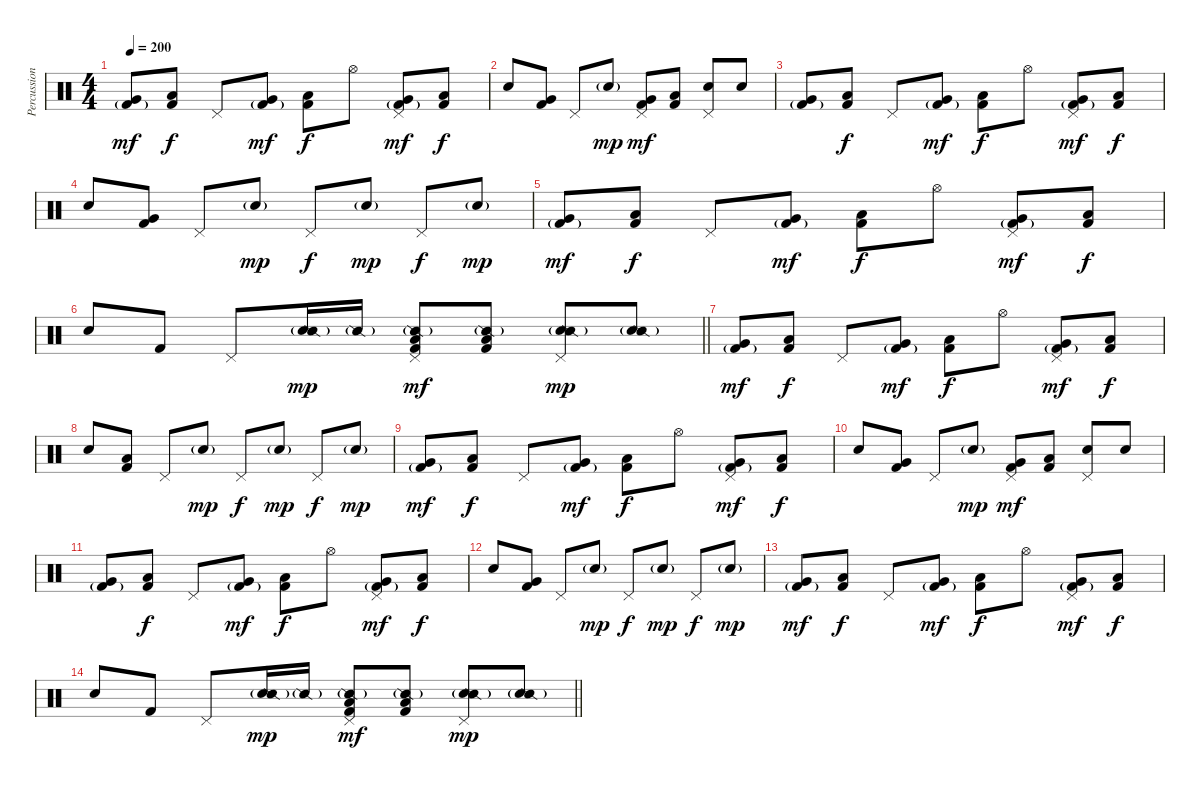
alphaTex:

\track ("Percussion" "Percussion") {instrument percussion}
\staff {score}
\articulation defaults
\ts (4 4)
\tempo 200
\clef neutral
\ks c
("Very Low Tom (hit)" "Kick (hit) 2"{g}).8{dy mf} ("Low Floor Tom (hit)" "Kick (hit) 2").8{dy f} "Pedal Hi-Hat (hit)".8 ("Very Low Tom (hit)" "Kick (hit) 2"{g}).8{dy mf} ("Low Floor Tom (hit)" "Kick (hit) 2").8{dy f} "Hi-Hat (open)".8 ("Pedal Hi-Hat (hit)" "Very Low Tom (hit)" "Kick (hit) 2"{g}).8{dy mf} ("Low Floor Tom (hit)" "Kick (hit) 2").8{dy f} |
"Electric Snare (hit)".8 ("Very Low Tom (hit)" "Kick (hit) 2").8 "Pedal Hi-Hat (hit)".8 "Electric Snare (hit)"{g}.8{dy mp} ("Pedal Hi-Hat (hit)" "Very Low Tom (hit)" "Kick (hit) 2").8{dy mf} ("Low Floor Tom (hit)" "Kick (hit) 2").8 ("Pedal Hi-Hat (hit)" "Electric Snare (hit)").8 "Electric Snare (hit)".8 |
("Very Low Tom (hit)" "Kick (hit) 2"{g}).8 ("Low Floor Tom (hit)" "Kick (hit) 2").8{dy f} "Pedal Hi-Hat (hit)".8 ("Very Low Tom (hit)" "Kick (hit) 2"{g}).8{dy mf} ("Low Floor Tom (hit)" "Kick (hit) 2").8{dy f} "Hi-Hat (open)".8 ("Pedal Hi-Hat (hit)" "Very Low Tom (hit)" "Kick (hit) 2"{g}).8{dy mf} ("Low Floor Tom (hit)" "Kick (hit) 2").8{dy f} |
"Electric Snare (hit)".8 ("Very Low Tom (hit)" "Kick (hit) 2").8 "Pedal Hi-Hat (hit)".8 "Electric Snare (hit)"{g}.8{dy mp} "Pedal Hi-Hat (hit)".8{dy f} "Electric Snare (hit)"{g}.8{dy mp} "Pedal Hi-Hat (hit)".8{dy f} "Electric Snare (hit)"{g}.8{dy mp} |
("Very Low Tom (hit)" "Kick (hit) 2"{g}).8{dy mf} ("Low Floor Tom (hit)" "Kick (hit) 2").8{dy f} "Pedal Hi-Hat (hit)".8 ("Very Low Tom (hit)" "Kick (hit) 2"{g}).8{dy mf} ("Low Floor Tom (hit)" "Kick (hit) 2").8{dy f} "Hi-Hat (open)".8 ("Pedal Hi-Hat (hit)" "Very Low Tom (hit)" "Kick (hit) 2"{g}).8{dy mf} ("Low Floor Tom (hit)" "Kick (hit) 2").8{dy f} |
\barLineRight lightlight "Electric Snare (hit)".8 "Kick (hit) 2".8 "Pedal Hi-Hat (hit)".8
("Electric Snare (hit)"{g} "Snare (side stick) 2"{g}).16{dy mp} "Snare (side stick) 2"{g}.16 ("Pedal Hi-Hat (hit)" "Snare (side stick) 2"{g} "Low Floor Tom (hit)" "Kick (hit) 2").8{dy mf} ("Snare (side stick) 2"{g} "Low Floor Tom (hit)" "Kick (hit) 2").8 ("Pedal Hi-Hat (hit)" "Electric Snare (hit)" "Snare (side stick) 2"{g}).8{dy mp} ("Electric Snare (hit)" "Snare (side stick) 2"{g}).8 |
("Very Low Tom (hit)" "Kick (hit) 2"{g}).8{dy mf volume 5} ("Low Floor Tom (hit)" "Kick (hit) 2").8{dy f} "Pedal Hi-Hat (hit)".8 ("Very Low Tom (hit)" "Kick (hit) 2"{g}).8{dy mf} ("Low Floor Tom (hit)" "Kick (hit) 2").8{dy f} "Hi-Hat (open)".8 ("Pedal Hi-Hat (hit)" "Very Low Tom (hit)" "Kick (hit) 2"{g}).8{dy mf} ("Low Floor Tom (hit)" "Kick (hit) 2").8{dy f} |
"Electric Snare (hit)".8 ("Low Floor Tom (hit)" "Kick (hit) 2").8 "Pedal Hi-Hat (hit)".8 "Electric Snare (hit)"{g}.8{dy mp} "Pedal Hi-Hat (hit)".8{dy f} "Electric Snare (hit)"{g}.8{dy mp} "Pedal Hi-Hat (hit)".8{dy f} "Electric Snare (hit)"{g}.8{dy mp} |
("Very Low Tom (hit)" "Kick (hit) 2"{g}).8{dy mf} ("Low Floor Tom (hit)" "Kick (hit) 2").8{dy f} "Pedal Hi-Hat (hit)".8 ("Very Low Tom (hit)" "Kick (hit) 2"{g}).8{dy mf} ("Low Floor Tom (hit)" "Kick (hit) 2").8{dy f} "Hi-Hat (open)".8 ("Pedal Hi-Hat (hit)" "Very Low Tom (hit)" "Kick (hit) 2"{g}).8{dy mf} ("Low Floor Tom (hit)" "Kick (hit) 2").8{dy f} |
"Electric Snare (hit)".8 ("Very Low Tom (hit)" "Kick (hit) 2").8 "Pedal Hi-Hat (hit)".8 "Electric Snare (hit)"{g}.8{dy mp} ("Pedal Hi-Hat (hit)" "Very Low Tom (hit)" "Kick (hit) 2").8{dy mf} ("Low Floor Tom (hit)" "Kick (hit) 2").8 ("Pedal Hi-Hat (hit)" "Electric Snare (hit)").8 "Electric Snare (hit)".8 |
("Very Low Tom (hit)" "Kick (hit) 2"{g}).8{volume 0} ("Low Floor Tom (hit)" "Kick (hit) 2").8{dy f} "Pedal Hi-Hat (hit)".8 ("Very Low Tom (hit)" "Kick (hit) 2"{g}).8{dy mf} ("Low Floor Tom (hit)" "Kick (hit) 2").8{dy f} "Hi-Hat (open)".8 ("Pedal Hi-Hat (hit)" "Very Low Tom (hit)" "Kick (hit) 2"{g}).8{dy mf} ("Low Floor Tom (hit)" "Kick (hit) 2").8{dy f} |
"Electric Snare (hit)".8 ("Very Low Tom (hit)" "Kick (hit) 2").8 "Pedal Hi-Hat (hit)".8 "Electric Snare (hit)"{g}.8{dy mp} "Pedal Hi-Hat (hit)".8{dy f} "Electric Snare (hit)"{g}.8{dy mp} "Pedal Hi-Hat (hit)".8{dy f} "Electric Snare (hit)"{g}.8{dy mp} |
("Very Low Tom (hit)" "Kick (hit) 2"{g}).8{dy mf} ("Low Floor Tom (hit)" "Kick (hit) 2").8{dy f} "Pedal Hi-Hat (hit)".8 ("Very Low Tom (hit)" "Kick (hit) 2"{g}).8{dy mf} ("Low Floor Tom (hit)" "Kick (hit) 2").8{dy f} "Hi-Hat (open)".8 ("Pedal Hi-Hat (hit)" "Very Low Tom (hit)" "Kick (hit) 2"{g}).8{dy mf} ("Low Floor Tom (hit)" "Kick (hit) 2").8{dy f} |
\barLineRight lightlight "Electric Snare (hit)".8 "Kick (hit) 2".8 "Pedal Hi-Hat (hit)".8
("Electric Snare (hit)"{g} "Snare (side stick) 2"{g}).16{dy mp} "Snare (side stick) 2"{g}.16 ("Pedal Hi-Hat (hit)" "Snare (side stick) 2"{g} "Low Floor Tom (hit)" "Kick (hit) 2").8{dy mf} ("Snare (side stick) 2"{g} "Low Floor Tom (hit)" "Kick (hit) 2").8 ("Pedal Hi-Hat (hit)" "Electric Snare (hit)" "Snare (side stick) 2"{g}).8{dy mp} ("Electric Snare (hit)" "Snare (side stick) 2"{g}).8
